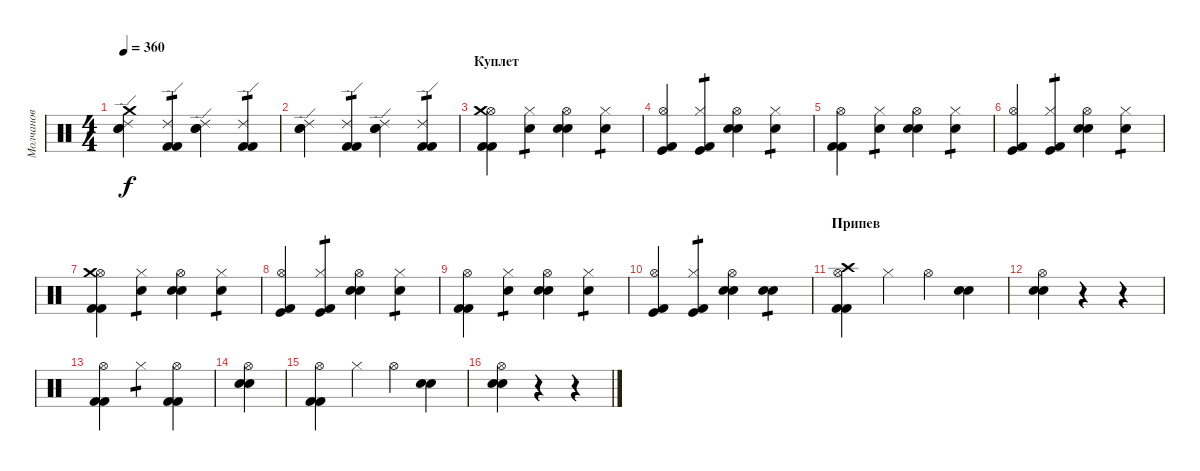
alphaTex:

\track ("Молчанов" "Молчанов") {instrument percussion}
\staff {score}
\articulation defaults
\ts (4 4)
\tempo 360
\clef neutral
\ks c
("Ride (edge) 2" "Electric Snare (hit)" "Electric Snare (hit)" "Crash medium (hit)").4{dy f} ("Ride (edge) 2" "Kick (hit) 2" "Kick (hit) 2").4{tp 1} ("Ride (edge) 2" "Electric Snare (hit)" "Electric Snare (hit)").4 ("Ride (edge) 2" "Kick (hit) 2" "Kick (hit) 2").4{tp 1} |
("Ride (edge) 2" "Electric Snare (hit)" "Electric Snare (hit)").4 ("Ride (edge) 2" "Kick (hit) 2" "Kick (hit) 2").4{tp 1} ("Ride (edge) 2" "Electric Snare (hit)" "Electric Snare (hit)").4 ("Ride (edge) 2" "Kick (hit) 2" "Kick (hit) 2").4{tp 1} |
\section ("" "Куплет")
("Kick (hit) 2" "Kick (hit) 2" "Hi-Hat (open)" "Crash medium (hit)").4 ("Snare (hit)"{x} "Hi-Hat (closed)").4{tp 1} ("Electric Snare (hit)" "Electric Snare (hit)" "Hi-Hat (open)").4 ("Snare (hit)"{x} "Hi-Hat (closed)").4{tp 1} |
("Kick (hit) 2" "Kick (hit)" "Hi-Hat (open)").4 ("Kick (hit) 2" "Kick (hit)" "Hi-Hat (closed)").4{tp 1} ("Electric Snare (hit)" "Electric Snare (hit)" "Hi-Hat (open)").4 ("Snare (hit)"{x} "Hi-Hat (closed)").4{tp 1} |
("Kick (hit) 2" "Kick (hit) 2" "Hi-Hat (open)").4 ("Snare (hit)"{x} "Hi-Hat (closed)").4{tp 1} ("Electric Snare (hit)" "Electric Snare (hit)" "Hi-Hat (open)").4 ("Snare (hit)"{x} "Hi-Hat (closed)").4{tp 1} |
("Kick (hit) 2" "Kick (hit)" "Hi-Hat (open)").4 ("Kick (hit) 2" "Kick (hit)" "Hi-Hat (closed)").4{tp 1} ("Electric Snare (hit)" "Electric Snare (hit)" "Hi-Hat (open)").4 ("Snare (hit)"{x} "Hi-Hat (closed)").4{tp 1} |
("Kick (hit) 2" "Kick (hit) 2" "Hi-Hat (open)" "Crash medium (hit)").4 ("Snare (hit)"{x} "Hi-Hat (closed)").4{tp 1} ("Electric Snare (hit)" "Electric Snare (hit)" "Hi-Hat (open)").4 ("Snare (hit)"{x} "Hi-Hat (closed)").4{tp 1} |
("Kick (hit) 2" "Kick (hit)" "Hi-Hat (open)").4 ("Kick (hit) 2" "Kick (hit)" "Hi-Hat (closed)").4{tp 1} ("Electric Snare (hit)" "Electric Snare (hit)" "Hi-Hat (open)").4 ("Snare (hit)"{x} "Hi-Hat (closed)").4{tp 1} |
("Kick (hit) 2" "Kick (hit) 2" "Hi-Hat (open)").4 ("Snare (hit)"{x} "Hi-Hat (closed)").4{tp 1} ("Electric Snare (hit)" "Electric Snare (hit)" "Hi-Hat (open)").4 ("Snare (hit)"{x} "Hi-Hat (closed)").4{tp 1} |
("Kick (hit) 2" "Kick (hit)" "Hi-Hat (open)").4 ("Kick (hit) 2" "Kick (hit)" "Hi-Hat (closed)").4{tp 1} ("Electric Snare (hit)" "Electric Snare (hit)" "Hi-Hat (open)").4 ("Electric Snare (hit)" "Electric Snare (hit)").4{tp 1} |
\section ("" "Припев")
("Kick (hit) 2" "Kick (hit) 2" "Hi-Hat (open)" "Crash high (hit)").4 "Hi-Hat (closed)"{x}.4 "Hi-Hat (open)"{x}.4 ("Snare (hit)"{x} "Snare (hit)"{x}).4 |
("Electric Snare (hit)" "Electric Snare (hit)" "Hi-Hat (open)").4 r.4 r.4 |
("Kick (hit) 2" "Kick (hit) 2" "Hi-Hat (open)").4 "Hi-Hat (closed)".4{tp 1} ("Kick (hit) 2" "Kick (hit) 2" "Hi-Hat (open)").4 |
("Electric Snare (hit)" "Electric Snare (hit)" "Hi-Hat (open)").4 |
("Kick (hit) 2" "Kick (hit) 2" "Hi-Hat (open)").4 "Hi-Hat (closed)"{x}.4 "Hi-Hat (open)"{x}.4 ("Snare (hit)"{x} "Snare (hit)"{x}).4 |
("Electric Snare (hit)" "Electric Snare (hit)" "Hi-Hat (open)").4 r.4 r.4
